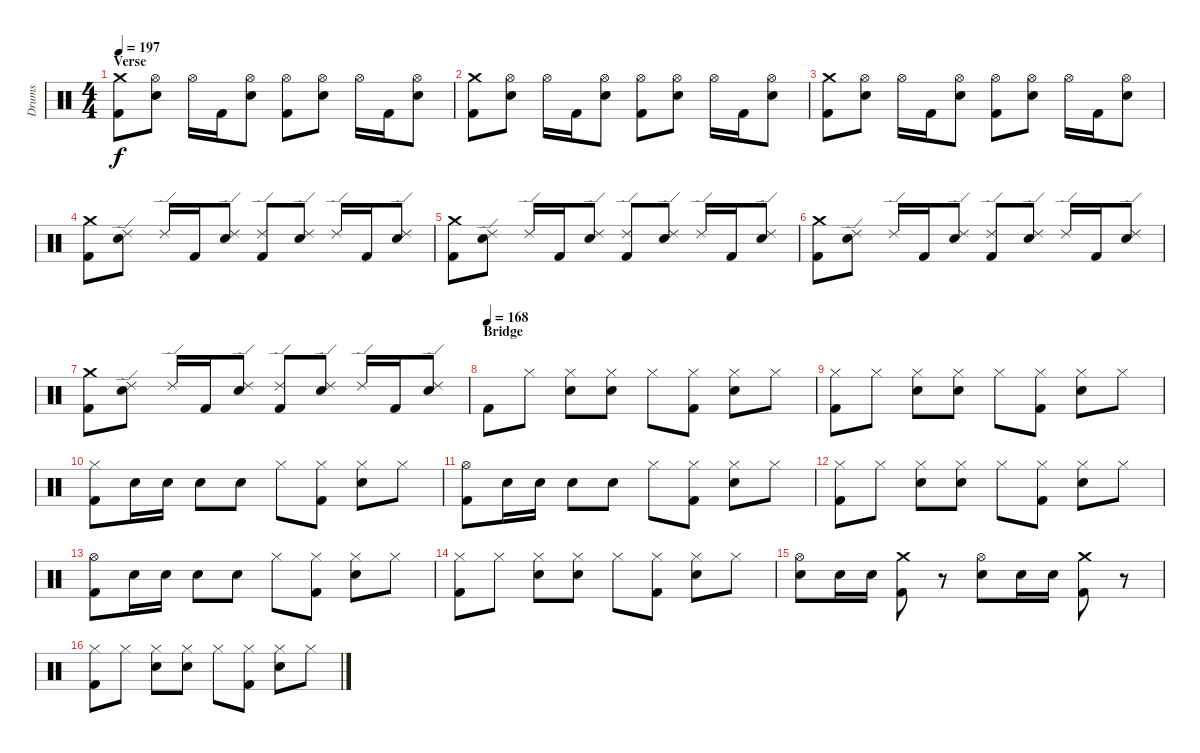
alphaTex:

\track ("Drums" "Drums") {instrument percussion}
\staff {score}
\articulation defaults
\ts (4 4)
\section ("" "Verse")
\tempo 197
\clef neutral
\ks c
("Crash medium (hit)" "Kick (hit) 2").8{dy f} ("Hi-Hat (open)" "Electric Snare (hit)").8 "Hi-Hat (open)".16 "Kick (hit) 2".16 ("Hi-Hat (open)" "Electric Snare (hit)").8 ("Hi-Hat (open)" "Kick (hit) 2").8 ("Hi-Hat (open)" "Electric Snare (hit)").8 "Hi-Hat (open)".16 "Kick (hit) 2".16 ("Hi-Hat (open)" "Electric Snare (hit)").8 |
("Crash medium (hit)" "Kick (hit) 2").8 ("Hi-Hat (open)" "Electric Snare (hit)").8 "Hi-Hat (open)".16 "Kick (hit) 2".16 ("Hi-Hat (open)" "Electric Snare (hit)").8 ("Hi-Hat (open)" "Kick (hit) 2").8 ("Hi-Hat (open)" "Electric Snare (hit)").8 "Hi-Hat (open)".16 "Kick (hit) 2".16 ("Hi-Hat (open)" "Electric Snare (hit)").8 |
("Crash medium (hit)" "Kick (hit) 2").8 ("Hi-Hat (open)" "Electric Snare (hit)").8 "Hi-Hat (open)".16 "Kick (hit) 2".16 ("Hi-Hat (open)" "Electric Snare (hit)").8 ("Hi-Hat (open)" "Kick (hit) 2").8 ("Hi-Hat (open)" "Electric Snare (hit)").8 "Hi-Hat (open)".16 "Kick (hit) 2".16 ("Hi-Hat (open)" "Electric Snare (hit)").8 |
("Crash medium (hit)" "Kick (hit) 2").8 ("Ride (edge) 2" "Electric Snare (hit)").8 "Ride (edge) 2".16 "Kick (hit) 2".16 ("Ride (edge) 2" "Electric Snare (hit)").8 ("Ride (edge) 2" "Kick (hit) 2").8 ("Ride (edge) 2" "Electric Snare (hit)").8 "Ride (edge) 2".16 "Kick (hit) 2".16 ("Ride (edge) 2" "Electric Snare (hit)").8 |
("Crash medium (hit)" "Kick (hit) 2").8 ("Ride (edge) 2" "Electric Snare (hit)").8 "Ride (edge) 2".16 "Kick (hit) 2".16 ("Ride (edge) 2" "Electric Snare (hit)").8 ("Ride (edge) 2" "Kick (hit) 2").8 ("Ride (edge) 2" "Electric Snare (hit)").8 "Ride (edge) 2".16 "Kick (hit) 2".16 ("Ride (edge) 2" "Electric Snare (hit)").8 |
("Crash medium (hit)" "Kick (hit) 2").8 ("Ride (edge) 2" "Electric Snare (hit)").8 "Ride (edge) 2".16 "Kick (hit) 2".16 ("Ride (edge) 2" "Electric Snare (hit)").8 ("Ride (edge) 2" "Kick (hit) 2").8 ("Ride (edge) 2" "Electric Snare (hit)").8 "Ride (edge) 2".16 "Kick (hit) 2".16 ("Ride (edge) 2" "Electric Snare (hit)").8 |
("Crash medium (hit)" "Kick (hit) 2").8 ("Ride (edge) 2" "Electric Snare (hit)").8 "Ride (edge) 2".16 "Kick (hit) 2".16 ("Ride (edge) 2" "Electric Snare (hit)").8 ("Ride (edge) 2" "Kick (hit) 2").8 ("Ride (edge) 2" "Electric Snare (hit)").8 "Ride (edge) 2".16 "Kick (hit) 2".16 ("Ride (edge) 2" "Electric Snare (hit)").8 |
\section ("" "Bridge")
\tempo (168)
"Kick (hit) 2".8 "Hi-Hat (closed)".8 ("Hi-Hat (closed)" "Electric Snare (hit)").8 ("Hi-Hat (closed)" "Electric Snare (hit)").8 "Hi-Hat (closed)".8 ("Hi-Hat (closed)" "Kick (hit) 2").8 ("Hi-Hat (closed)" "Electric Snare (hit)").8 "Hi-Hat (closed)".8 |
("Hi-Hat (closed)" "Kick (hit) 2").8 "Hi-Hat (closed)".8 ("Hi-Hat (closed)" "Electric Snare (hit)").8 ("Hi-Hat (closed)" "Electric Snare (hit)").8 "Hi-Hat (closed)".8 ("Hi-Hat (closed)" "Kick (hit) 2").8 ("Hi-Hat (closed)" "Electric Snare (hit)").8 "Hi-Hat (closed)".8 |
("Hi-Hat (closed)" "Kick (hit) 2").8 "Electric Snare (hit)".16 "Electric Snare (hit)".16 "Electric Snare (hit)".8 "Electric Snare (hit)".8 "Hi-Hat (closed)".8 ("Hi-Hat (closed)" "Kick (hit) 2").8 ("Hi-Hat (closed)" "Electric Snare (hit)").8 "Hi-Hat (closed)".8 |
("Hi-Hat (open)" "Kick (hit) 2").8 "Electric Snare (hit)".16 "Electric Snare (hit)".16 "Electric Snare (hit)".8 "Electric Snare (hit)".8 "Hi-Hat (closed)".8 ("Hi-Hat (closed)" "Kick (hit) 2").8 ("Hi-Hat (closed)" "Electric Snare (hit)").8 "Hi-Hat (closed)".8 |
("Hi-Hat (closed)" "Kick (hit) 2").8 "Hi-Hat (closed)".8 ("Hi-Hat (closed)" "Electric Snare (hit)").8 ("Hi-Hat (closed)" "Electric Snare (hit)").8 "Hi-Hat (closed)".8 ("Hi-Hat (closed)" "Kick (hit) 2").8 ("Hi-Hat (closed)" "Electric Snare (hit)").8 "Hi-Hat (closed)".8 |
("Hi-Hat (open)" "Kick (hit) 2").8 "Electric Snare (hit)".16 "Electric Snare (hit)".16 "Electric Snare (hit)".8 "Electric Snare (hit)".8 "Hi-Hat (closed)".8 ("Hi-Hat (closed)" "Kick (hit) 2").8 ("Hi-Hat (closed)" "Electric Snare (hit)").8 "Hi-Hat (closed)".8 |
("Hi-Hat (closed)" "Kick (hit) 2").8 "Hi-Hat (closed)".8 ("Hi-Hat (closed)" "Electric Snare (hit)").8 ("Hi-Hat (closed)" "Electric Snare (hit)").8 "Hi-Hat (closed)".8 ("Hi-Hat (closed)" "Kick (hit) 2").8 ("Hi-Hat (closed)" "Electric Snare (hit)").8 "Hi-Hat (closed)".8 |
("Hi-Hat (open)" "Electric Snare (hit)").8 "Electric Snare (hit)".16 "Electric Snare (hit)".16 ("Crash medium (hit)" "Kick (hit) 2").8 r.8 ("Hi-Hat (open)" "Electric Snare (hit)").8 "Electric Snare (hit)".16 "Electric Snare (hit)".16 ("Crash medium (hit)" "Kick (hit) 2").8 r.8 |
("Hi-Hat (closed)" "Kick (hit) 2").8 "Hi-Hat (closed)".8 ("Hi-Hat (closed)" "Electric Snare (hit)").8 ("Hi-Hat (closed)" "Electric Snare (hit)").8 "Hi-Hat (closed)".8 ("Hi-Hat (closed)" "Kick (hit) 2").8 ("Hi-Hat (closed)" "Electric Snare (hit)").8 "Hi-Hat (closed)".8
